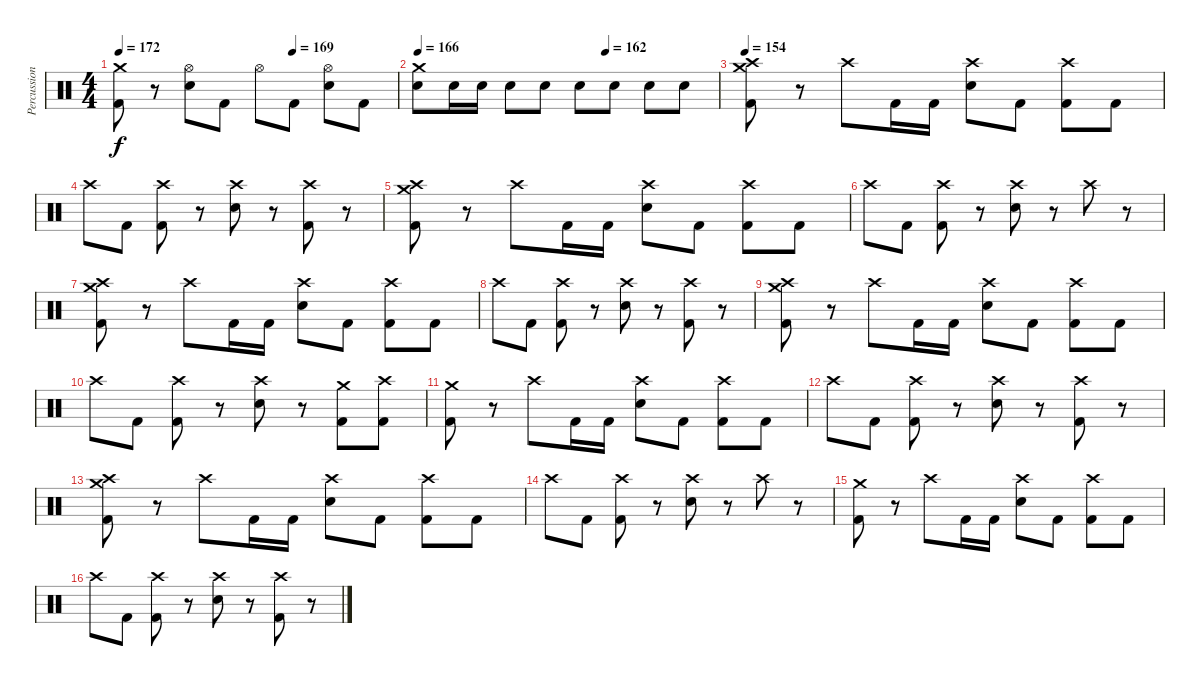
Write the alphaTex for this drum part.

\track ("Percussion" "Percussion") {instrument percussion}
\staff {score}
\articulation defaults
\ts (4 4)
\tempo 172
\tempo (169 0.625)
\clef neutral
\ks c
("Crash medium (hit)" "Kick (hit) 2").8{dy f} r.8 ("Hi-Hat (open)" "Snare (hit) 2").8 "Kick (hit) 2".8 "Hi-Hat (open)".8 "Kick (hit) 2".8 ("Hi-Hat (open)" "Snare (hit) 2").8 "Kick (hit) 2".8 |
\tempo 166
\tempo (162 0.625)
("Crash medium (hit)" "Snare (hit) 2").8 "Snare (hit) 2".16 "Snare (hit) 2".16 "Snare (hit) 2".8 "Snare (hit) 2".8 "Snare (hit) 2".8 "Snare (hit) 2".8 "Snare (hit) 2".8 "Snare (hit) 2".8 |
\tempo 154
("Crash medium (hit)" "Crash high (hit)" "Kick (hit) 2").8 r.8 "Crash high (hit)".8 "Kick (hit) 2".16 "Kick (hit) 2".16 ("Crash high (hit)" "Snare (hit) 2").8 "Kick (hit) 2".8 ("Crash high (hit)" "Kick (hit) 2").8 "Kick (hit) 2".8 |
"Crash high (hit)".8 "Kick (hit) 2".8 ("Crash high (hit)" "Kick (hit) 2").8 r.8 ("Crash high (hit)" "Snare (hit) 2").8 r.8 ("Crash high (hit)" "Kick (hit) 2").8 r.8 |
("Crash high (hit)" "Crash medium (hit)" "Kick (hit) 2").8 r.8 "Crash high (hit)".8 "Kick (hit) 2".16 "Kick (hit) 2".16 ("Crash high (hit)" "Snare (hit) 2").8 "Kick (hit) 2".8 ("Crash high (hit)" "Kick (hit) 2").8 "Kick (hit) 2".8 |
"Crash high (hit)".8 "Kick (hit) 2".8 ("Crash high (hit)" "Kick (hit) 2").8 r.8 ("Crash high (hit)" "Snare (hit) 2").8 r.8 "Crash high (hit)".8 r.8 |
("Crash medium (hit)" "Crash high (hit)" "Kick (hit) 2").8 r.8 "Crash high (hit)".8 "Kick (hit) 2".16 "Kick (hit) 2".16 ("Crash high (hit)" "Snare (hit) 2").8 "Kick (hit) 2".8 ("Crash high (hit)" "Kick (hit) 2").8 "Kick (hit) 2".8 |
"Crash high (hit)".8 "Kick (hit) 2".8 ("Crash high (hit)" "Kick (hit) 2").8 r.8 ("Crash high (hit)" "Snare (hit) 2").8 r.8 ("Crash high (hit)" "Kick (hit) 2").8 r.8 |
("Crash high (hit)" "Crash medium (hit)" "Kick (hit) 2").8 r.8 "Crash high (hit)".8 "Kick (hit) 2".16 "Kick (hit) 2".16 ("Crash high (hit)" "Snare (hit) 2").8 "Kick (hit) 2".8 ("Crash high (hit)" "Kick (hit) 2").8 "Kick (hit) 2".8 |
"Crash high (hit)".8 "Kick (hit) 2".8 ("Crash high (hit)" "Kick (hit) 2").8 r.8 ("Crash high (hit)" "Snare (hit) 2").8 r.8 ("Crash medium (hit)" "Kick (hit) 2").8 ("Crash high (hit)" "Kick (hit) 2").8 |
("Crash medium (hit)" "Kick (hit) 2").8 r.8 "Crash high (hit)".8 "Kick (hit) 2".16 "Kick (hit) 2".16 ("Crash high (hit)" "Snare (hit) 2").8 "Kick (hit) 2".8 ("Crash high (hit)" "Kick (hit) 2").8 "Kick (hit) 2".8 |
"Crash high (hit)".8 "Kick (hit) 2".8 ("Crash high (hit)" "Kick (hit) 2").8 r.8 ("Crash high (hit)" "Snare (hit) 2").8 r.8 ("Crash high (hit)" "Kick (hit) 2").8 r.8 |
("Crash high (hit)" "Crash medium (hit)" "Kick (hit) 2").8 r.8 "Crash high (hit)".8 "Kick (hit) 2".16 "Kick (hit) 2".16 ("Crash high (hit)" "Snare (hit) 2").8 "Kick (hit) 2".8 ("Crash high (hit)" "Kick (hit) 2").8 "Kick (hit) 2".8 |
"Crash high (hit)".8 "Kick (hit) 2".8 ("Crash high (hit)" "Kick (hit) 2").8 r.8 ("Crash high (hit)" "Snare (hit) 2").8 r.8 "Crash high (hit)".8 r.8 |
("Crash medium (hit)" "Kick (hit) 2").8 r.8 "Crash high (hit)".8 "Kick (hit) 2".16 "Kick (hit) 2".16 ("Crash high (hit)" "Snare (hit) 2").8 "Kick (hit) 2".8 ("Crash high (hit)" "Kick (hit) 2").8 "Kick (hit) 2".8 |
"Crash high (hit)".8 "Kick (hit) 2".8 ("Crash high (hit)" "Kick (hit) 2").8 r.8 ("Crash high (hit)" "Snare (hit) 2").8 r.8 ("Crash high (hit)" "Kick (hit) 2").8 r.8
